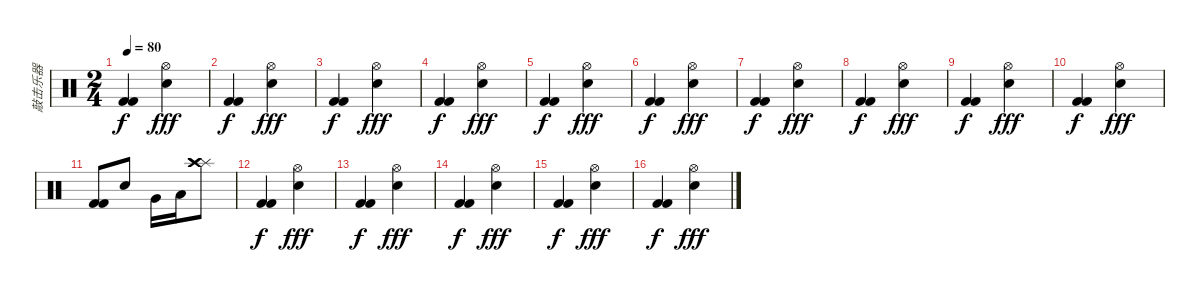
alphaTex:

\track ("敲击乐器" "敲击乐器") {instrument percussion}
\staff {score}
\articulation defaults
\ts (2 4)
\tempo 80
\clef neutral
\ks c
("Kick (hit) 2" "Kick (hit) 2").4{dy f} ("Hi-Hat (open)" "Snare (hit) 2").4{dy fff} |
("Kick (hit) 2" "Kick (hit) 2").4{dy f} ("Hi-Hat (open)" "Snare (hit) 2").4{dy fff} |
("Kick (hit) 2" "Kick (hit) 2").4{dy f} ("Hi-Hat (open)" "Snare (hit) 2").4{dy fff} |
("Kick (hit) 2" "Kick (hit) 2").4{dy f} ("Hi-Hat (open)" "Snare (hit) 2").4{dy fff} |
("Kick (hit) 2" "Kick (hit) 2").4{dy f} ("Hi-Hat (open)" "Snare (hit) 2").4{dy fff} |
("Kick (hit) 2" "Kick (hit) 2").4{dy f} ("Hi-Hat (open)" "Snare (hit) 2").4{dy fff} |
("Kick (hit) 2" "Kick (hit) 2").4{dy f} ("Hi-Hat (open)" "Snare (hit) 2").4{dy fff} |
("Kick (hit) 2" "Kick (hit) 2").4{dy f} ("Hi-Hat (open)" "Snare (hit) 2").4{dy fff} |
("Kick (hit) 2" "Kick (hit) 2").4{dy f} ("Hi-Hat (open)" "Snare (hit) 2").4{dy fff} |
("Kick (hit) 2" "Kick (hit) 2").4{dy f} ("Hi-Hat (open)" "Snare (hit) 2").4{dy fff} |
("Kick (hit) 2" "Kick (hit) 2").8 "Snare (hit) 2".8 "Very Low Tom (hit)".16 "Low Floor Tom (hit)".16 ("Splash (hit)" "Crash high (hit)" "Crash high (hit)").8 |
("Kick (hit) 2" "Kick (hit) 2").4{dy f} ("Hi-Hat (open)" "Snare (hit) 2").4{dy fff} |
("Kick (hit) 2" "Kick (hit) 2").4{dy f} ("Hi-Hat (open)" "Snare (hit) 2").4{dy fff} |
("Kick (hit) 2" "Kick (hit) 2").4{dy f} ("Hi-Hat (open)" "Snare (hit) 2").4{dy fff} |
("Kick (hit) 2" "Kick (hit) 2").4{dy f} ("Hi-Hat (open)" "Snare (hit) 2").4{dy fff} |
("Kick (hit) 2" "Kick (hit) 2").4{dy f} ("Hi-Hat (open)" "Snare (hit) 2").4{dy fff}
